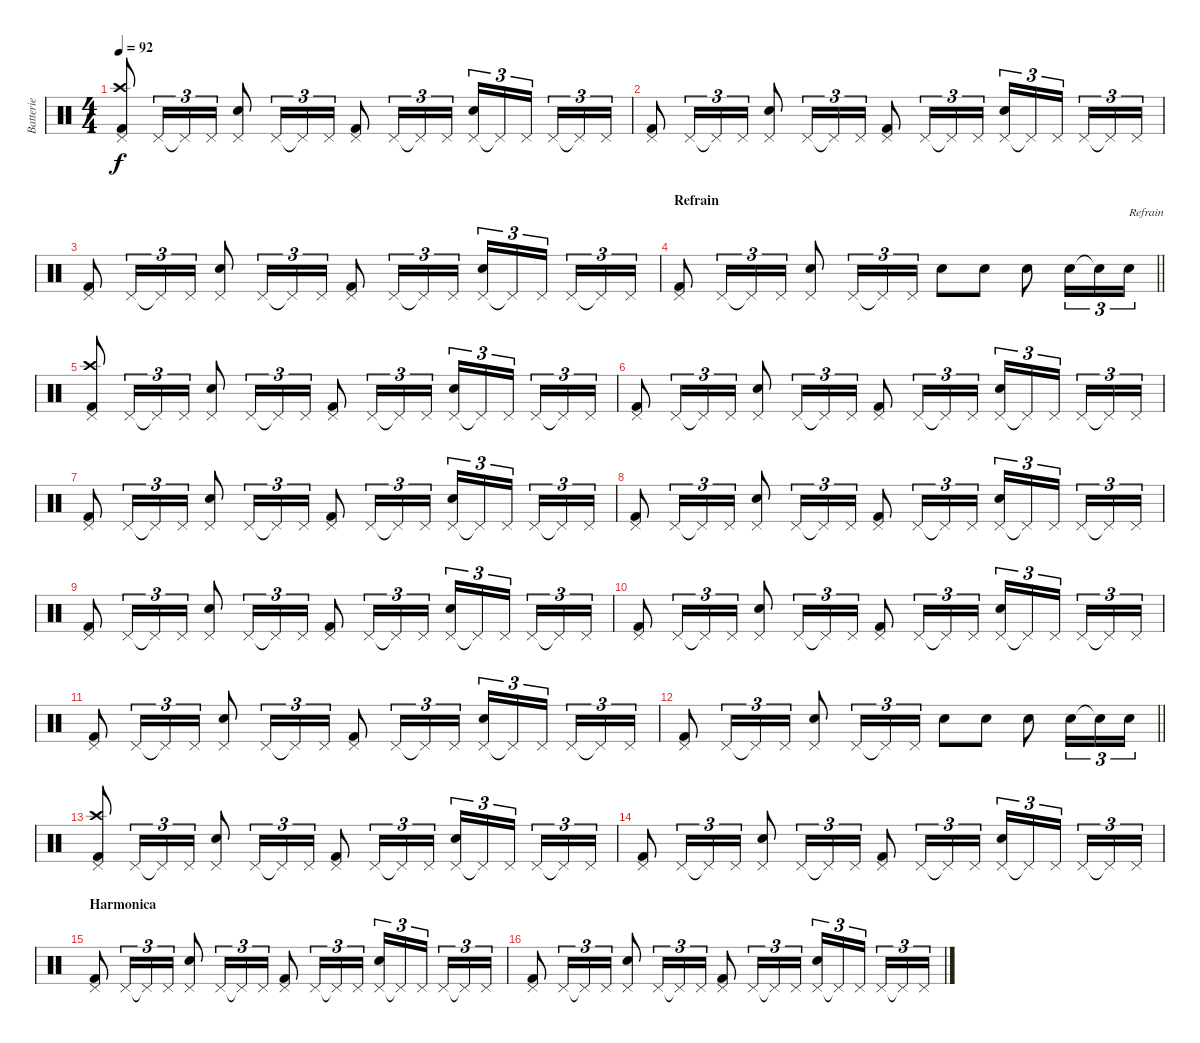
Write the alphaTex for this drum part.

\track ("Batterie" "Batterie") {instrument percussion}
\staff {score}
\articulation defaults
\ts (4 4)
\tempo 92
\clef neutral
\ks c
("Pedal Hi-Hat (hit)" "Crash high (hit)" "Kick (hit) 2").8{dy f} "Pedal Hi-Hat (hit)".16{tu (3 2)} "Pedal Hi-Hat (hit)"{t}.16{tu (3 2)} "Pedal Hi-Hat (hit)".16{tu (3 2)} ("Pedal Hi-Hat (hit)" "Electric Snare (hit)").8 "Pedal Hi-Hat (hit)".16{tu (3 2)} "Pedal Hi-Hat (hit)"{t}.16{tu (3 2)} "Pedal Hi-Hat (hit)".16{tu (3 2)} ("Pedal Hi-Hat (hit)" "Kick (hit) 2").8 "Pedal Hi-Hat (hit)".16{tu (3 2)} "Pedal Hi-Hat (hit)"{t}.16{tu (3 2)} "Pedal Hi-Hat (hit)".16{tu (3 2)} ("Pedal Hi-Hat (hit)" "Electric Snare (hit)").16{tu (3 2)} "Pedal Hi-Hat (hit)"{t}.16{tu (3 2)} "Pedal Hi-Hat (hit)".16{tu (3 2)} "Pedal Hi-Hat (hit)".16{tu (3 2)} "Pedal Hi-Hat (hit)"{t}.16{tu (3 2)} "Pedal Hi-Hat (hit)".16{tu (3 2)} |
("Pedal Hi-Hat (hit)" "Kick (hit) 2").8 "Pedal Hi-Hat (hit)".16{tu (3 2)} "Pedal Hi-Hat (hit)"{t}.16{tu (3 2)} "Pedal Hi-Hat (hit)".16{tu (3 2)} ("Pedal Hi-Hat (hit)" "Electric Snare (hit)").8 "Pedal Hi-Hat (hit)".16{tu (3 2)} "Pedal Hi-Hat (hit)"{t}.16{tu (3 2)} "Pedal Hi-Hat (hit)".16{tu (3 2)} ("Pedal Hi-Hat (hit)" "Kick (hit) 2").8 "Pedal Hi-Hat (hit)".16{tu (3 2)} "Pedal Hi-Hat (hit)"{t}.16{tu (3 2)} "Pedal Hi-Hat (hit)".16{tu (3 2)} ("Pedal Hi-Hat (hit)" "Electric Snare (hit)").16{tu (3 2)} "Pedal Hi-Hat (hit)"{t}.16{tu (3 2)} "Pedal Hi-Hat (hit)".16{tu (3 2)} "Pedal Hi-Hat (hit)".16{tu (3 2)} "Pedal Hi-Hat (hit)"{t}.16{tu (3 2)} "Pedal Hi-Hat (hit)".16{tu (3 2)} |
("Pedal Hi-Hat (hit)" "Kick (hit) 2").8 "Pedal Hi-Hat (hit)".16{tu (3 2)} "Pedal Hi-Hat (hit)"{t}.16{tu (3 2)} "Pedal Hi-Hat (hit)".16{tu (3 2)} ("Pedal Hi-Hat (hit)" "Electric Snare (hit)").8 "Pedal Hi-Hat (hit)".16{tu (3 2)} "Pedal Hi-Hat (hit)"{t}.16{tu (3 2)} "Pedal Hi-Hat (hit)".16{tu (3 2)} ("Pedal Hi-Hat (hit)" "Kick (hit) 2").8 "Pedal Hi-Hat (hit)".16{tu (3 2)} "Pedal Hi-Hat (hit)"{t}.16{tu (3 2)} "Pedal Hi-Hat (hit)".16{tu (3 2)} ("Pedal Hi-Hat (hit)" "Electric Snare (hit)").16{tu (3 2)} "Pedal Hi-Hat (hit)"{t}.16{tu (3 2)} "Pedal Hi-Hat (hit)".16{tu (3 2)} "Pedal Hi-Hat (hit)".16{tu (3 2)} "Pedal Hi-Hat (hit)"{t}.16{tu (3 2)} "Pedal Hi-Hat (hit)".16{tu (3 2)} |
\section ("" "Refrain")
\barLineRight lightlight
("Pedal Hi-Hat (hit)" "Kick (hit) 2").8 "Pedal Hi-Hat (hit)".16{tu (3 2)} "Pedal Hi-Hat (hit)"{t}.16{tu (3 2)} "Pedal Hi-Hat (hit)".16{tu (3 2)} ("Pedal Hi-Hat (hit)" "Electric Snare (hit)").8 "Pedal Hi-Hat (hit)".16{tu (3 2)} "Pedal Hi-Hat (hit)"{t}.16{tu (3 2)} "Pedal Hi-Hat (hit)".16{tu (3 2)} "Electric Snare (hit)".8 "Electric Snare (hit)".8 "Electric Snare (hit)".8 "Electric Snare (hit)".16{tu (3 2)} "Electric Snare (hit)"{t}.16{tu (3 2)} "Electric Snare (hit)".16{tu (3 2) txt "Refrain"} |
("Pedal Hi-Hat (hit)" "Crash high (hit)" "Kick (hit) 2").8 "Pedal Hi-Hat (hit)".16{tu (3 2)} "Pedal Hi-Hat (hit)"{t}.16{tu (3 2)} "Pedal Hi-Hat (hit)".16{tu (3 2)} ("Pedal Hi-Hat (hit)" "Electric Snare (hit)").8 "Pedal Hi-Hat (hit)".16{tu (3 2)} "Pedal Hi-Hat (hit)"{t}.16{tu (3 2)} "Pedal Hi-Hat (hit)".16{tu (3 2)} ("Pedal Hi-Hat (hit)" "Kick (hit) 2").8 "Pedal Hi-Hat (hit)".16{tu (3 2)} "Pedal Hi-Hat (hit)"{t}.16{tu (3 2)} "Pedal Hi-Hat (hit)".16{tu (3 2)} ("Pedal Hi-Hat (hit)" "Electric Snare (hit)").16{tu (3 2)} "Pedal Hi-Hat (hit)"{t}.16{tu (3 2)} "Pedal Hi-Hat (hit)".16{tu (3 2)} "Pedal Hi-Hat (hit)".16{tu (3 2)} "Pedal Hi-Hat (hit)"{t}.16{tu (3 2)} "Pedal Hi-Hat (hit)".16{tu (3 2)} |
("Pedal Hi-Hat (hit)" "Kick (hit) 2").8 "Pedal Hi-Hat (hit)".16{tu (3 2)} "Pedal Hi-Hat (hit)"{t}.16{tu (3 2)} "Pedal Hi-Hat (hit)".16{tu (3 2)} ("Pedal Hi-Hat (hit)" "Electric Snare (hit)").8 "Pedal Hi-Hat (hit)".16{tu (3 2)} "Pedal Hi-Hat (hit)"{t}.16{tu (3 2)} "Pedal Hi-Hat (hit)".16{tu (3 2)} ("Pedal Hi-Hat (hit)" "Kick (hit) 2").8 "Pedal Hi-Hat (hit)".16{tu (3 2)} "Pedal Hi-Hat (hit)"{t}.16{tu (3 2)} "Pedal Hi-Hat (hit)".16{tu (3 2)} ("Pedal Hi-Hat (hit)" "Electric Snare (hit)").16{tu (3 2)} "Pedal Hi-Hat (hit)"{t}.16{tu (3 2)} "Pedal Hi-Hat (hit)".16{tu (3 2)} "Pedal Hi-Hat (hit)".16{tu (3 2)} "Pedal Hi-Hat (hit)"{t}.16{tu (3 2)} "Pedal Hi-Hat (hit)".16{tu (3 2)} |
("Pedal Hi-Hat (hit)" "Kick (hit) 2").8 "Pedal Hi-Hat (hit)".16{tu (3 2)} "Pedal Hi-Hat (hit)"{t}.16{tu (3 2)} "Pedal Hi-Hat (hit)".16{tu (3 2)} ("Pedal Hi-Hat (hit)" "Electric Snare (hit)").8 "Pedal Hi-Hat (hit)".16{tu (3 2)} "Pedal Hi-Hat (hit)"{t}.16{tu (3 2)} "Pedal Hi-Hat (hit)".16{tu (3 2)} ("Pedal Hi-Hat (hit)" "Kick (hit) 2").8 "Pedal Hi-Hat (hit)".16{tu (3 2)} "Pedal Hi-Hat (hit)"{t}.16{tu (3 2)} "Pedal Hi-Hat (hit)".16{tu (3 2)} ("Pedal Hi-Hat (hit)" "Electric Snare (hit)").16{tu (3 2)} "Pedal Hi-Hat (hit)"{t}.16{tu (3 2)} "Pedal Hi-Hat (hit)".16{tu (3 2)} "Pedal Hi-Hat (hit)".16{tu (3 2)} "Pedal Hi-Hat (hit)"{t}.16{tu (3 2)} "Pedal Hi-Hat (hit)".16{tu (3 2)} |
("Pedal Hi-Hat (hit)" "Kick (hit) 2").8 "Pedal Hi-Hat (hit)".16{tu (3 2)} "Pedal Hi-Hat (hit)"{t}.16{tu (3 2)} "Pedal Hi-Hat (hit)".16{tu (3 2)} ("Pedal Hi-Hat (hit)" "Electric Snare (hit)").8 "Pedal Hi-Hat (hit)".16{tu (3 2)} "Pedal Hi-Hat (hit)"{t}.16{tu (3 2)} "Pedal Hi-Hat (hit)".16{tu (3 2)} ("Pedal Hi-Hat (hit)" "Kick (hit) 2").8 "Pedal Hi-Hat (hit)".16{tu (3 2)} "Pedal Hi-Hat (hit)"{t}.16{tu (3 2)} "Pedal Hi-Hat (hit)".16{tu (3 2)} ("Pedal Hi-Hat (hit)" "Electric Snare (hit)").16{tu (3 2)} "Pedal Hi-Hat (hit)"{t}.16{tu (3 2)} "Pedal Hi-Hat (hit)".16{tu (3 2)} "Pedal Hi-Hat (hit)".16{tu (3 2)} "Pedal Hi-Hat (hit)"{t}.16{tu (3 2)} "Pedal Hi-Hat (hit)".16{tu (3 2)} |
("Pedal Hi-Hat (hit)" "Kick (hit) 2").8 "Pedal Hi-Hat (hit)".16{tu (3 2)} "Pedal Hi-Hat (hit)"{t}.16{tu (3 2)} "Pedal Hi-Hat (hit)".16{tu (3 2)} ("Pedal Hi-Hat (hit)" "Electric Snare (hit)").8 "Pedal Hi-Hat (hit)".16{tu (3 2)} "Pedal Hi-Hat (hit)"{t}.16{tu (3 2)} "Pedal Hi-Hat (hit)".16{tu (3 2)} ("Pedal Hi-Hat (hit)" "Kick (hit) 2").8 "Pedal Hi-Hat (hit)".16{tu (3 2)} "Pedal Hi-Hat (hit)"{t}.16{tu (3 2)} "Pedal Hi-Hat (hit)".16{tu (3 2)} ("Pedal Hi-Hat (hit)" "Electric Snare (hit)").16{tu (3 2)} "Pedal Hi-Hat (hit)"{t}.16{tu (3 2)} "Pedal Hi-Hat (hit)".16{tu (3 2)} "Pedal Hi-Hat (hit)".16{tu (3 2)} "Pedal Hi-Hat (hit)"{t}.16{tu (3 2)} "Pedal Hi-Hat (hit)".16{tu (3 2)} |
("Pedal Hi-Hat (hit)" "Kick (hit) 2").8 "Pedal Hi-Hat (hit)".16{tu (3 2)} "Pedal Hi-Hat (hit)"{t}.16{tu (3 2)} "Pedal Hi-Hat (hit)".16{tu (3 2)} ("Pedal Hi-Hat (hit)" "Electric Snare (hit)").8 "Pedal Hi-Hat (hit)".16{tu (3 2)} "Pedal Hi-Hat (hit)"{t}.16{tu (3 2)} "Pedal Hi-Hat (hit)".16{tu (3 2)} ("Pedal Hi-Hat (hit)" "Kick (hit) 2").8 "Pedal Hi-Hat (hit)".16{tu (3 2)} "Pedal Hi-Hat (hit)"{t}.16{tu (3 2)} "Pedal Hi-Hat (hit)".16{tu (3 2)} ("Pedal Hi-Hat (hit)" "Electric Snare (hit)").16{tu (3 2)} "Pedal Hi-Hat (hit)"{t}.16{tu (3 2)} "Pedal Hi-Hat (hit)".16{tu (3 2)} "Pedal Hi-Hat (hit)".16{tu (3 2)} "Pedal Hi-Hat (hit)"{t}.16{tu (3 2)} "Pedal Hi-Hat (hit)".16{tu (3 2)} |
("Pedal Hi-Hat (hit)" "Kick (hit) 2").8 "Pedal Hi-Hat (hit)".16{tu (3 2)} "Pedal Hi-Hat (hit)"{t}.16{tu (3 2)} "Pedal Hi-Hat (hit)".16{tu (3 2)} ("Pedal Hi-Hat (hit)" "Electric Snare (hit)").8 "Pedal Hi-Hat (hit)".16{tu (3 2)} "Pedal Hi-Hat (hit)"{t}.16{tu (3 2)} "Pedal Hi-Hat (hit)".16{tu (3 2)} ("Pedal Hi-Hat (hit)" "Kick (hit) 2").8 "Pedal Hi-Hat (hit)".16{tu (3 2)} "Pedal Hi-Hat (hit)"{t}.16{tu (3 2)} "Pedal Hi-Hat (hit)".16{tu (3 2)} ("Pedal Hi-Hat (hit)" "Electric Snare (hit)").16{tu (3 2)} "Pedal Hi-Hat (hit)"{t}.16{tu (3 2)} "Pedal Hi-Hat (hit)".16{tu (3 2)} "Pedal Hi-Hat (hit)".16{tu (3 2)} "Pedal Hi-Hat (hit)"{t}.16{tu (3 2)} "Pedal Hi-Hat (hit)".16{tu (3 2)} |
\barLineRight lightlight
("Pedal Hi-Hat (hit)" "Kick (hit) 2").8 "Pedal Hi-Hat (hit)".16{tu (3 2)} "Pedal Hi-Hat (hit)"{t}.16{tu (3 2)} "Pedal Hi-Hat (hit)".16{tu (3 2)} ("Pedal Hi-Hat (hit)" "Electric Snare (hit)").8 "Pedal Hi-Hat (hit)".16{tu (3 2)} "Pedal Hi-Hat (hit)"{t}.16{tu (3 2)} "Pedal Hi-Hat (hit)".16{tu (3 2)} "Electric Snare (hit)".8 "Electric Snare (hit)".8 "Electric Snare (hit)".8 "Electric Snare (hit)".16{tu (3 2)} "Electric Snare (hit)"{t}.16{tu (3 2)} "Electric Snare (hit)".16{tu (3 2)} |
("Pedal Hi-Hat (hit)" "Crash high (hit)" "Kick (hit) 2").8 "Pedal Hi-Hat (hit)".16{tu (3 2)} "Pedal Hi-Hat (hit)"{t}.16{tu (3 2)} "Pedal Hi-Hat (hit)".16{tu (3 2)} ("Pedal Hi-Hat (hit)" "Electric Snare (hit)").8 "Pedal Hi-Hat (hit)".16{tu (3 2)} "Pedal Hi-Hat (hit)"{t}.16{tu (3 2)} "Pedal Hi-Hat (hit)".16{tu (3 2)} ("Pedal Hi-Hat (hit)" "Kick (hit) 2").8 "Pedal Hi-Hat (hit)".16{tu (3 2)} "Pedal Hi-Hat (hit)"{t}.16{tu (3 2)} "Pedal Hi-Hat (hit)".16{tu (3 2)} ("Pedal Hi-Hat (hit)" "Electric Snare (hit)").16{tu (3 2)} "Pedal Hi-Hat (hit)"{t}.16{tu (3 2)} "Pedal Hi-Hat (hit)".16{tu (3 2)} "Pedal Hi-Hat (hit)".16{tu (3 2)} "Pedal Hi-Hat (hit)"{t}.16{tu (3 2)} "Pedal Hi-Hat (hit)".16{tu (3 2)} |
("Pedal Hi-Hat (hit)" "Kick (hit) 2").8 "Pedal Hi-Hat (hit)".16{tu (3 2)} "Pedal Hi-Hat (hit)"{t}.16{tu (3 2)} "Pedal Hi-Hat (hit)".16{tu (3 2)} ("Pedal Hi-Hat (hit)" "Electric Snare (hit)").8 "Pedal Hi-Hat (hit)".16{tu (3 2)} "Pedal Hi-Hat (hit)"{t}.16{tu (3 2)} "Pedal Hi-Hat (hit)".16{tu (3 2)} ("Pedal Hi-Hat (hit)" "Kick (hit) 2").8 "Pedal Hi-Hat (hit)".16{tu (3 2)} "Pedal Hi-Hat (hit)"{t}.16{tu (3 2)} "Pedal Hi-Hat (hit)".16{tu (3 2)} ("Pedal Hi-Hat (hit)" "Electric Snare (hit)").16{tu (3 2)} "Pedal Hi-Hat (hit)"{t}.16{tu (3 2)} "Pedal Hi-Hat (hit)".16{tu (3 2)} "Pedal Hi-Hat (hit)".16{tu (3 2)} "Pedal Hi-Hat (hit)"{t}.16{tu (3 2)} "Pedal Hi-Hat (hit)".16{tu (3 2)} |
\section ("" "Harmonica")
("Pedal Hi-Hat (hit)" "Kick (hit) 2").8 "Pedal Hi-Hat (hit)".16{tu (3 2)} "Pedal Hi-Hat (hit)"{t}.16{tu (3 2)} "Pedal Hi-Hat (hit)".16{tu (3 2)} ("Pedal Hi-Hat (hit)" "Electric Snare (hit)").8 "Pedal Hi-Hat (hit)".16{tu (3 2)} "Pedal Hi-Hat (hit)"{t}.16{tu (3 2)} "Pedal Hi-Hat (hit)".16{tu (3 2)} ("Pedal Hi-Hat (hit)" "Kick (hit) 2").8 "Pedal Hi-Hat (hit)".16{tu (3 2)} "Pedal Hi-Hat (hit)"{t}.16{tu (3 2)} "Pedal Hi-Hat (hit)".16{tu (3 2)} ("Pedal Hi-Hat (hit)" "Electric Snare (hit)").16{tu (3 2)} "Pedal Hi-Hat (hit)"{t}.16{tu (3 2)} "Pedal Hi-Hat (hit)".16{tu (3 2)} "Pedal Hi-Hat (hit)".16{tu (3 2)} "Pedal Hi-Hat (hit)"{t}.16{tu (3 2)} "Pedal Hi-Hat (hit)".16{tu (3 2)} |
("Pedal Hi-Hat (hit)" "Kick (hit) 2").8 "Pedal Hi-Hat (hit)".16{tu (3 2)} "Pedal Hi-Hat (hit)"{t}.16{tu (3 2)} "Pedal Hi-Hat (hit)".16{tu (3 2)} ("Pedal Hi-Hat (hit)" "Electric Snare (hit)").8 "Pedal Hi-Hat (hit)".16{tu (3 2)} "Pedal Hi-Hat (hit)"{t}.16{tu (3 2)} "Pedal Hi-Hat (hit)".16{tu (3 2)} ("Pedal Hi-Hat (hit)" "Kick (hit) 2").8 "Pedal Hi-Hat (hit)".16{tu (3 2)} "Pedal Hi-Hat (hit)"{t}.16{tu (3 2)} "Pedal Hi-Hat (hit)".16{tu (3 2)} ("Pedal Hi-Hat (hit)" "Electric Snare (hit)").16{tu (3 2)} "Pedal Hi-Hat (hit)"{t}.16{tu (3 2)} "Pedal Hi-Hat (hit)".16{tu (3 2)} "Pedal Hi-Hat (hit)".16{tu (3 2)} "Pedal Hi-Hat (hit)"{t}.16{tu (3 2)} "Pedal Hi-Hat (hit)".16{tu (3 2)}
